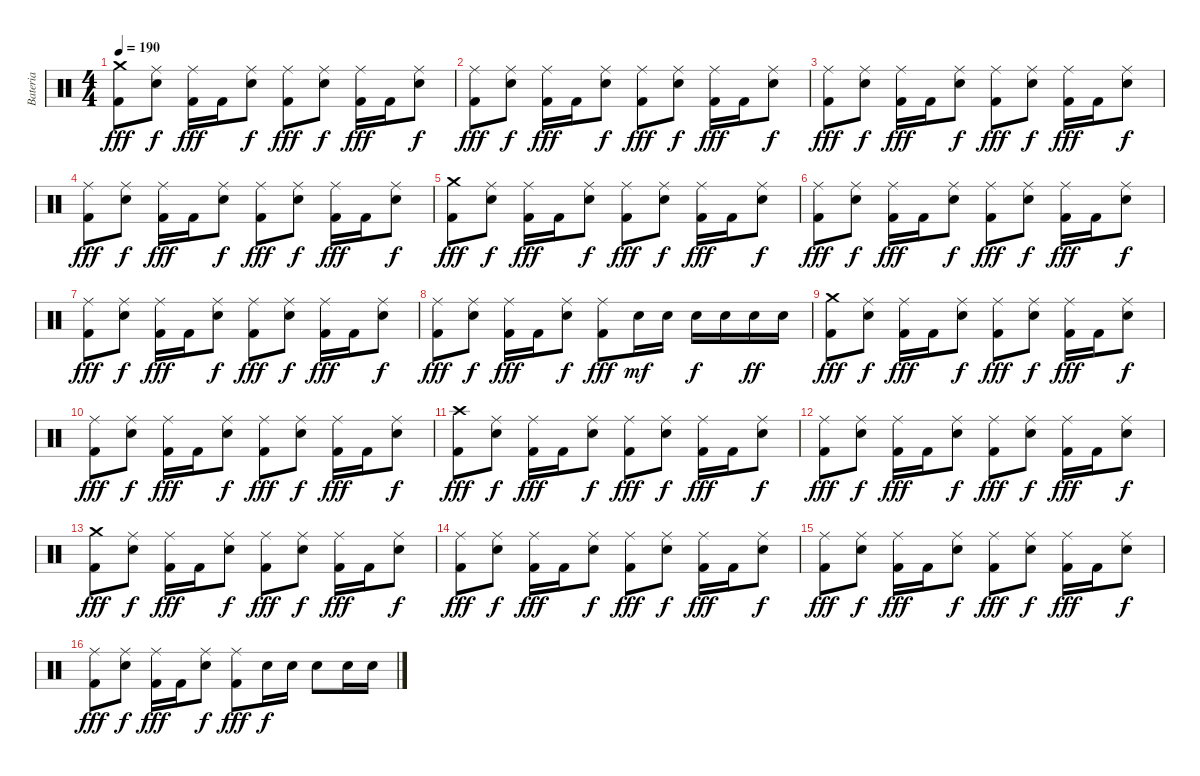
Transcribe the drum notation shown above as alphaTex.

\track ("Bateria" "Bateria") {instrument percussion}
\staff {score}
\articulation defaults
\ts (4 4)
\tempo 190
\clef neutral
\ks c
("Crash medium (hit)" "Kick (hit) 2").8{dy fff} ("Ride (middle)" "Electric Snare (hit)").8{dy f} ("Ride (middle)" "Kick (hit) 2").16{dy fff} "Kick (hit) 2".16 ("Ride (middle)" "Electric Snare (hit)").8{dy f} ("Ride (middle)" "Kick (hit) 2").8{dy fff} ("Ride (middle)" "Electric Snare (hit)").8{dy f} ("Ride (middle)" "Kick (hit) 2").16{dy fff} "Kick (hit) 2".16 ("Ride (middle)" "Electric Snare (hit)").8{dy f} |
("Ride (middle)" "Kick (hit) 2").8{dy fff} ("Ride (middle)" "Electric Snare (hit)").8{dy f} ("Ride (middle)" "Kick (hit) 2").16{dy fff} "Kick (hit) 2".16 ("Ride (middle)" "Electric Snare (hit)").8{dy f} ("Ride (middle)" "Kick (hit) 2").8{dy fff} ("Ride (middle)" "Electric Snare (hit)").8{dy f} ("Ride (middle)" "Kick (hit) 2").16{dy fff} "Kick (hit) 2".16 ("Ride (middle)" "Electric Snare (hit)").8{dy f} |
("Ride (middle)" "Kick (hit) 2").8{dy fff} ("Ride (middle)" "Electric Snare (hit)").8{dy f} ("Ride (middle)" "Kick (hit) 2").16{dy fff} "Kick (hit) 2".16 ("Ride (middle)" "Electric Snare (hit)").8{dy f} ("Ride (middle)" "Kick (hit) 2").8{dy fff} ("Ride (middle)" "Electric Snare (hit)").8{dy f} ("Ride (middle)" "Kick (hit) 2").16{dy fff} "Kick (hit) 2".16 ("Ride (middle)" "Electric Snare (hit)").8{dy f} |
("Ride (middle)" "Kick (hit) 2").8{dy fff} ("Ride (middle)" "Electric Snare (hit)").8{dy f} ("Ride (middle)" "Kick (hit) 2").16{dy fff} "Kick (hit) 2".16 ("Ride (middle)" "Electric Snare (hit)").8{dy f} ("Ride (middle)" "Kick (hit) 2").8{dy fff} ("Ride (middle)" "Electric Snare (hit)").8{dy f} ("Ride (middle)" "Kick (hit) 2").16{dy fff} "Kick (hit) 2".16 ("Ride (middle)" "Electric Snare (hit)").8{dy f} |
("Crash medium (hit)" "Kick (hit) 2").8{dy fff} ("Ride (middle)" "Electric Snare (hit)").8{dy f} ("Ride (middle)" "Kick (hit) 2").16{dy fff} "Kick (hit) 2".16 ("Ride (middle)" "Electric Snare (hit)").8{dy f} ("Ride (middle)" "Kick (hit) 2").8{dy fff} ("Ride (middle)" "Electric Snare (hit)").8{dy f} ("Ride (middle)" "Kick (hit) 2").16{dy fff} "Kick (hit) 2".16 ("Ride (middle)" "Electric Snare (hit)").8{dy f} |
("Ride (middle)" "Kick (hit) 2").8{dy fff} ("Ride (middle)" "Electric Snare (hit)").8{dy f} ("Ride (middle)" "Kick (hit) 2").16{dy fff} "Kick (hit) 2".16 ("Ride (middle)" "Electric Snare (hit)").8{dy f} ("Ride (middle)" "Kick (hit) 2").8{dy fff} ("Ride (middle)" "Electric Snare (hit)").8{dy f} ("Ride (middle)" "Kick (hit) 2").16{dy fff} "Kick (hit) 2".16 ("Ride (middle)" "Electric Snare (hit)").8{dy f} |
("Ride (middle)" "Kick (hit) 2").8{dy fff} ("Ride (middle)" "Electric Snare (hit)").8{dy f} ("Ride (middle)" "Kick (hit) 2").16{dy fff} "Kick (hit) 2".16 ("Ride (middle)" "Electric Snare (hit)").8{dy f} ("Ride (middle)" "Kick (hit) 2").8{dy fff} ("Ride (middle)" "Electric Snare (hit)").8{dy f} ("Ride (middle)" "Kick (hit) 2").16{dy fff} "Kick (hit) 2".16 ("Ride (middle)" "Electric Snare (hit)").8{dy f} |
("Ride (middle)" "Kick (hit) 2").8{dy fff} ("Ride (middle)" "Electric Snare (hit)").8{dy f} ("Ride (middle)" "Kick (hit) 2").16{dy fff} "Kick (hit) 2".16 ("Ride (middle)" "Electric Snare (hit)").8{dy f} ("Ride (middle)" "Kick (hit) 2").8{dy fff} "Electric Snare (hit)".16{dy mf} "Electric Snare (hit)".16 "Electric Snare (hit)".16{dy f} "Electric Snare (hit)".16 "Electric Snare (hit)".16{dy ff} "Electric Snare (hit)".16 |
("Crash medium (hit)" "Kick (hit) 2").8{dy fff} ("Ride (middle)" "Electric Snare (hit)").8{dy f} ("Ride (middle)" "Kick (hit) 2").16{dy fff} "Kick (hit) 2".16 ("Ride (middle)" "Electric Snare (hit)").8{dy f} ("Ride (middle)" "Kick (hit) 2").8{dy fff} ("Ride (middle)" "Electric Snare (hit)").8{dy f} ("Ride (middle)" "Kick (hit) 2").16{dy fff} "Kick (hit) 2".16 ("Ride (middle)" "Electric Snare (hit)").8{dy f} |
("Ride (middle)" "Kick (hit) 2").8{dy fff} ("Ride (middle)" "Electric Snare (hit)").8{dy f} ("Ride (middle)" "Kick (hit) 2").16{dy fff} "Kick (hit) 2".16 ("Ride (middle)" "Electric Snare (hit)").8{dy f} ("Ride (middle)" "Kick (hit) 2").8{dy fff} ("Ride (middle)" "Electric Snare (hit)").8{dy f} ("Ride (middle)" "Kick (hit) 2").16{dy fff} "Kick (hit) 2".16 ("Ride (middle)" "Electric Snare (hit)").8{dy f} |
("Crash high (hit)" "Kick (hit) 2").8{dy fff} ("Ride (middle)" "Electric Snare (hit)").8{dy f} ("Ride (middle)" "Kick (hit) 2").16{dy fff} "Kick (hit) 2".16 ("Ride (middle)" "Electric Snare (hit)").8{dy f} ("Ride (middle)" "Kick (hit) 2").8{dy fff} ("Ride (middle)" "Electric Snare (hit)").8{dy f} ("Ride (middle)" "Kick (hit) 2").16{dy fff} "Kick (hit) 2".16 ("Ride (middle)" "Electric Snare (hit)").8{dy f} |
("Ride (middle)" "Kick (hit) 2").8{dy fff} ("Ride (middle)" "Electric Snare (hit)").8{dy f} ("Ride (middle)" "Kick (hit) 2").16{dy fff} "Kick (hit) 2".16 ("Ride (middle)" "Electric Snare (hit)").8{dy f} ("Ride (middle)" "Kick (hit) 2").8{dy fff} ("Ride (middle)" "Electric Snare (hit)").8{dy f} ("Ride (middle)" "Kick (hit) 2").16{dy fff} "Kick (hit) 2".16 ("Ride (middle)" "Electric Snare (hit)").8{dy f} |
("Crash medium (hit)" "Kick (hit) 2").8{dy fff} ("Ride (middle)" "Electric Snare (hit)").8{dy f} ("Ride (middle)" "Kick (hit) 2").16{dy fff} "Kick (hit) 2".16 ("Ride (middle)" "Electric Snare (hit)").8{dy f} ("Ride (middle)" "Kick (hit) 2").8{dy fff} ("Ride (middle)" "Electric Snare (hit)").8{dy f} ("Ride (middle)" "Kick (hit) 2").16{dy fff} "Kick (hit) 2".16 ("Ride (middle)" "Electric Snare (hit)").8{dy f} |
("Ride (middle)" "Kick (hit) 2").8{dy fff} ("Ride (middle)" "Electric Snare (hit)").8{dy f} ("Ride (middle)" "Kick (hit) 2").16{dy fff} "Kick (hit) 2".16 ("Ride (middle)" "Electric Snare (hit)").8{dy f} ("Ride (middle)" "Kick (hit) 2").8{dy fff} ("Ride (middle)" "Electric Snare (hit)").8{dy f} ("Ride (middle)" "Kick (hit) 2").16{dy fff} "Kick (hit) 2".16 ("Ride (middle)" "Electric Snare (hit)").8{dy f} |
("Ride (middle)" "Kick (hit) 2").8{dy fff} ("Ride (middle)" "Electric Snare (hit)").8{dy f} ("Ride (middle)" "Kick (hit) 2").16{dy fff} "Kick (hit) 2".16 ("Ride (middle)" "Electric Snare (hit)").8{dy f} ("Ride (middle)" "Kick (hit) 2").8{dy fff} ("Ride (middle)" "Electric Snare (hit)").8{dy f} ("Ride (middle)" "Kick (hit) 2").16{dy fff} "Kick (hit) 2".16 ("Ride (middle)" "Electric Snare (hit)").8{dy f} |
("Ride (middle)" "Kick (hit) 2").8{dy fff} ("Ride (middle)" "Electric Snare (hit)").8{dy f} ("Ride (middle)" "Kick (hit) 2").16{dy fff} "Kick (hit) 2".16 ("Ride (middle)" "Electric Snare (hit)").8{dy f} ("Ride (middle)" "Kick (hit) 2").8{dy fff} "Electric Snare (hit)".16{dy f} "Electric Snare (hit)".16 "Electric Snare (hit)".8 "Electric Snare (hit)".16 "Electric Snare (hit)".16
